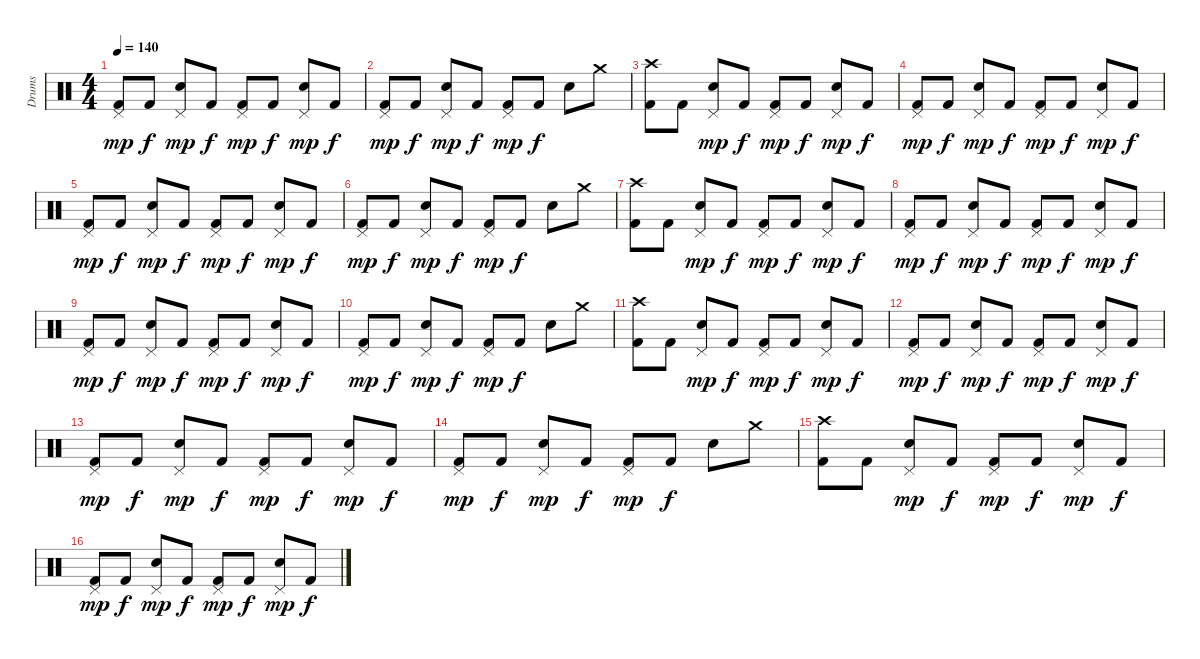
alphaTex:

\track ("Drums" "Drums") {instrument percussion}
\staff {score}
\articulation defaults
\ts (4 4)
\tempo 140
\clef neutral
\ks c
("Pedal Hi-Hat (hit)" "Kick (hit) 2").8{dy mp} "Kick (hit) 2".8{dy f} ("Pedal Hi-Hat (hit)" "Snare (hit) 2").8{dy mp} "Kick (hit) 2".8{dy f} ("Pedal Hi-Hat (hit)" "Kick (hit) 2").8{dy mp} "Kick (hit) 2".8{dy f} ("Pedal Hi-Hat (hit)" "Snare (hit) 2").8{dy mp} "Kick (hit) 2".8{dy f} |
("Pedal Hi-Hat (hit)" "Kick (hit) 2").8{dy mp} "Kick (hit) 2".8{dy f} ("Pedal Hi-Hat (hit)" "Snare (hit) 2").8{dy mp} "Kick (hit) 2".8{dy f} ("Pedal Hi-Hat (hit)" "Kick (hit) 2").8{dy mp} "Kick (hit) 2".8{dy f} "Snare (hit) 2".8 "Crash medium (hit)".8 |
("Crash high (hit)" "Kick (hit) 2").8 "Kick (hit) 2".8 ("Pedal Hi-Hat (hit)" "Snare (hit) 2").8{dy mp} "Kick (hit) 2".8{dy f} ("Pedal Hi-Hat (hit)" "Kick (hit) 2").8{dy mp} "Kick (hit) 2".8{dy f} ("Pedal Hi-Hat (hit)" "Snare (hit) 2").8{dy mp} "Kick (hit) 2".8{dy f} |
("Pedal Hi-Hat (hit)" "Kick (hit) 2").8{dy mp} "Kick (hit) 2".8{dy f} ("Pedal Hi-Hat (hit)" "Snare (hit) 2").8{dy mp} "Kick (hit) 2".8{dy f} ("Pedal Hi-Hat (hit)" "Kick (hit) 2").8{dy mp} "Kick (hit) 2".8{dy f} ("Pedal Hi-Hat (hit)" "Snare (hit) 2").8{dy mp} "Kick (hit) 2".8{dy f} |
("Pedal Hi-Hat (hit)" "Kick (hit) 2").8{dy mp} "Kick (hit) 2".8{dy f} ("Pedal Hi-Hat (hit)" "Snare (hit) 2").8{dy mp} "Kick (hit) 2".8{dy f} ("Pedal Hi-Hat (hit)" "Kick (hit) 2").8{dy mp} "Kick (hit) 2".8{dy f} ("Pedal Hi-Hat (hit)" "Snare (hit) 2").8{dy mp} "Kick (hit) 2".8{dy f} |
("Pedal Hi-Hat (hit)" "Kick (hit) 2").8{dy mp} "Kick (hit) 2".8{dy f} ("Pedal Hi-Hat (hit)" "Snare (hit) 2").8{dy mp} "Kick (hit) 2".8{dy f} ("Pedal Hi-Hat (hit)" "Kick (hit) 2").8{dy mp} "Kick (hit) 2".8{dy f} "Snare (hit) 2".8 "Crash medium (hit)".8 |
("Crash high (hit)" "Kick (hit) 2").8 "Kick (hit) 2".8 ("Pedal Hi-Hat (hit)" "Snare (hit) 2").8{dy mp} "Kick (hit) 2".8{dy f} ("Pedal Hi-Hat (hit)" "Kick (hit) 2").8{dy mp} "Kick (hit) 2".8{dy f} ("Pedal Hi-Hat (hit)" "Snare (hit) 2").8{dy mp} "Kick (hit) 2".8{dy f} |
("Pedal Hi-Hat (hit)" "Kick (hit) 2").8{dy mp} "Kick (hit) 2".8{dy f} ("Pedal Hi-Hat (hit)" "Snare (hit) 2").8{dy mp} "Kick (hit) 2".8{dy f} ("Pedal Hi-Hat (hit)" "Kick (hit) 2").8{dy mp} "Kick (hit) 2".8{dy f} ("Pedal Hi-Hat (hit)" "Snare (hit) 2").8{dy mp} "Kick (hit) 2".8{dy f} |
("Pedal Hi-Hat (hit)" "Kick (hit) 2").8{dy mp} "Kick (hit) 2".8{dy f} ("Pedal Hi-Hat (hit)" "Snare (hit) 2").8{dy mp} "Kick (hit) 2".8{dy f} ("Pedal Hi-Hat (hit)" "Kick (hit) 2").8{dy mp} "Kick (hit) 2".8{dy f} ("Pedal Hi-Hat (hit)" "Snare (hit) 2").8{dy mp} "Kick (hit) 2".8{dy f} |
("Pedal Hi-Hat (hit)" "Kick (hit) 2").8{dy mp} "Kick (hit) 2".8{dy f} ("Pedal Hi-Hat (hit)" "Snare (hit) 2").8{dy mp} "Kick (hit) 2".8{dy f} ("Pedal Hi-Hat (hit)" "Kick (hit) 2").8{dy mp} "Kick (hit) 2".8{dy f} "Snare (hit) 2".8 "Crash medium (hit)".8 |
("Crash high (hit)" "Kick (hit) 2").8 "Kick (hit) 2".8 ("Pedal Hi-Hat (hit)" "Snare (hit) 2").8{dy mp} "Kick (hit) 2".8{dy f} ("Pedal Hi-Hat (hit)" "Kick (hit) 2").8{dy mp} "Kick (hit) 2".8{dy f} ("Pedal Hi-Hat (hit)" "Snare (hit) 2").8{dy mp} "Kick (hit) 2".8{dy f} |
("Pedal Hi-Hat (hit)" "Kick (hit) 2").8{dy mp} "Kick (hit) 2".8{dy f} ("Pedal Hi-Hat (hit)" "Snare (hit) 2").8{dy mp} "Kick (hit) 2".8{dy f} ("Pedal Hi-Hat (hit)" "Kick (hit) 2").8{dy mp} "Kick (hit) 2".8{dy f} ("Pedal Hi-Hat (hit)" "Snare (hit) 2").8{dy mp} "Kick (hit) 2".8{dy f} |
("Pedal Hi-Hat (hit)" "Kick (hit) 2").8{dy mp} "Kick (hit) 2".8{dy f} ("Pedal Hi-Hat (hit)" "Snare (hit) 2").8{dy mp} "Kick (hit) 2".8{dy f} ("Pedal Hi-Hat (hit)" "Kick (hit) 2").8{dy mp} "Kick (hit) 2".8{dy f} ("Pedal Hi-Hat (hit)" "Snare (hit) 2").8{dy mp} "Kick (hit) 2".8{dy f} |
("Pedal Hi-Hat (hit)" "Kick (hit) 2").8{dy mp} "Kick (hit) 2".8{dy f} ("Pedal Hi-Hat (hit)" "Snare (hit) 2").8{dy mp} "Kick (hit) 2".8{dy f} ("Pedal Hi-Hat (hit)" "Kick (hit) 2").8{dy mp} "Kick (hit) 2".8{dy f} "Snare (hit) 2".8 "Crash medium (hit)".8 |
("Crash high (hit)" "Kick (hit) 2").8 "Kick (hit) 2".8 ("Pedal Hi-Hat (hit)" "Snare (hit) 2").8{dy mp} "Kick (hit) 2".8{dy f} ("Pedal Hi-Hat (hit)" "Kick (hit) 2").8{dy mp} "Kick (hit) 2".8{dy f} ("Pedal Hi-Hat (hit)" "Snare (hit) 2").8{dy mp} "Kick (hit) 2".8{dy f} |
("Pedal Hi-Hat (hit)" "Kick (hit) 2").8{dy mp} "Kick (hit) 2".8{dy f} ("Pedal Hi-Hat (hit)" "Snare (hit) 2").8{dy mp} "Kick (hit) 2".8{dy f} ("Pedal Hi-Hat (hit)" "Kick (hit) 2").8{dy mp} "Kick (hit) 2".8{dy f} ("Pedal Hi-Hat (hit)" "Snare (hit) 2").8{dy mp} "Kick (hit) 2".8{dy f}
